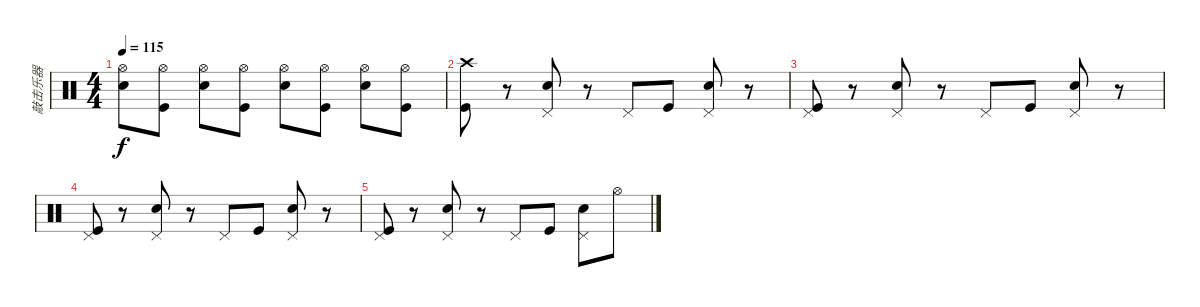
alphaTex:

\track ("敲击乐器" "敲击乐器") {instrument percussion}
\staff {score}
\articulation defaults
\ts (4 4)
\tempo 115
\clef neutral
\ks c
("Hi-Hat (open)" "Snare (hit) 2").8{dy f} ("Hi-Hat (open)" "Kick (hit)").8 ("Hi-Hat (open)" "Snare (hit) 2").8 ("Hi-Hat (open)" "Kick (hit)").8 ("Hi-Hat (open)" "Snare (hit) 2").8 ("Hi-Hat (open)" "Kick (hit)").8 ("Hi-Hat (open)" "Snare (hit) 2").8 ("Hi-Hat (open)" "Kick (hit)").8 |
("Crash high (hit)" "Kick (hit)").8 r.8 ("Pedal Hi-Hat (hit)" "Snare (hit) 2").8 r.8 "Pedal Hi-Hat (hit)".8 "Kick (hit)".8 ("Pedal Hi-Hat (hit)" "Snare (hit) 2").8 r.8 |
("Pedal Hi-Hat (hit)" "Kick (hit)").8 r.8 ("Pedal Hi-Hat (hit)" "Snare (hit) 2").8 r.8 "Pedal Hi-Hat (hit)".8 "Kick (hit)".8 ("Pedal Hi-Hat (hit)" "Snare (hit) 2").8 r.8 |
("Pedal Hi-Hat (hit)" "Kick (hit)").8 r.8 ("Pedal Hi-Hat (hit)" "Snare (hit) 2").8 r.8 "Pedal Hi-Hat (hit)".8 "Kick (hit)".8 ("Pedal Hi-Hat (hit)" "Snare (hit) 2").8 r.8 |
("Pedal Hi-Hat (hit)" "Kick (hit)").8 r.8 ("Pedal Hi-Hat (hit)" "Snare (hit) 2").8 r.8 "Pedal Hi-Hat (hit)".8 "Kick (hit)".8 ("Pedal Hi-Hat (hit)" "Snare (hit) 2").8 "Hi-Hat (open)".8
